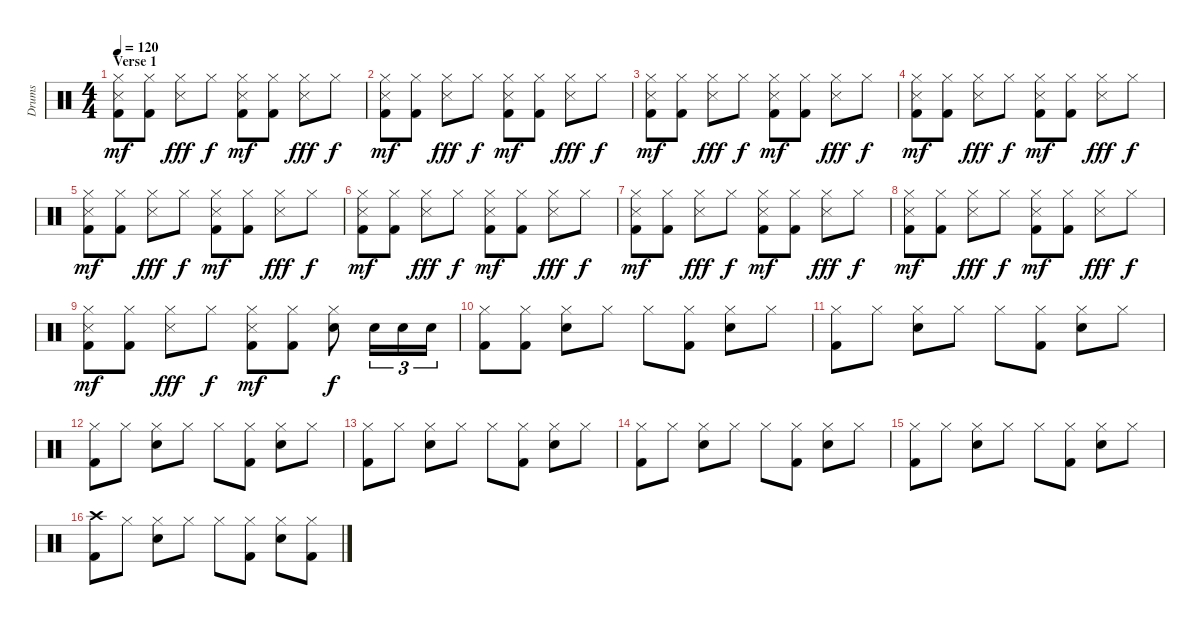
\track ("Drums" "Drums") {instrument percussion}
\staff {score}
\articulation defaults
\ts (4 4)
\section ("" "Verse 1")
\tempo 120
\clef neutral
\ks c
("Hi-Hat (closed)" "Snare (side stick) 3" "Kick (hit) 2").8{dy mf} ("Hi-Hat (closed)" "Kick (hit) 2").8 ("Hi-Hat (closed)" "Snare (side stick) 3").8{dy fff} "Hi-Hat (closed)".8{dy f} ("Hi-Hat (closed)" "Snare (side stick) 3" "Kick (hit) 2").8{dy mf} ("Hi-Hat (closed)" "Kick (hit) 2").8 ("Hi-Hat (closed)" "Snare (side stick) 3").8{dy fff} "Hi-Hat (closed)".8{dy f} |
("Hi-Hat (closed)" "Snare (side stick) 3" "Kick (hit) 2").8{dy mf} ("Hi-Hat (closed)" "Kick (hit) 2").8 ("Hi-Hat (closed)" "Snare (side stick) 3").8{dy fff} "Hi-Hat (closed)".8{dy f} ("Hi-Hat (closed)" "Snare (side stick) 3" "Kick (hit) 2").8{dy mf} ("Hi-Hat (closed)" "Kick (hit) 2").8 ("Hi-Hat (closed)" "Snare (side stick) 3").8{dy fff} "Hi-Hat (closed)".8{dy f} |
("Hi-Hat (closed)" "Snare (side stick) 3" "Kick (hit) 2").8{dy mf} ("Hi-Hat (closed)" "Kick (hit) 2").8 ("Hi-Hat (closed)" "Snare (side stick) 3").8{dy fff} "Hi-Hat (closed)".8{dy f} ("Hi-Hat (closed)" "Snare (side stick) 3" "Kick (hit) 2").8{dy mf} ("Hi-Hat (closed)" "Kick (hit) 2").8 ("Hi-Hat (closed)" "Snare (side stick) 3").8{dy fff} "Hi-Hat (closed)".8{dy f} |
("Hi-Hat (closed)" "Snare (side stick) 3" "Kick (hit) 2").8{dy mf} ("Hi-Hat (closed)" "Kick (hit) 2").8 ("Hi-Hat (closed)" "Snare (side stick) 3").8{dy fff} "Hi-Hat (closed)".8{dy f} ("Hi-Hat (closed)" "Snare (side stick) 3" "Kick (hit) 2").8{dy mf} ("Hi-Hat (closed)" "Kick (hit) 2").8 ("Hi-Hat (closed)" "Snare (side stick) 3").8{dy fff} "Hi-Hat (closed)".8{dy f} |
("Hi-Hat (closed)" "Snare (side stick) 3" "Kick (hit) 2").8{dy mf} ("Hi-Hat (closed)" "Kick (hit) 2").8 ("Hi-Hat (closed)" "Snare (side stick) 3").8{dy fff} "Hi-Hat (closed)".8{dy f} ("Hi-Hat (closed)" "Snare (side stick) 3" "Kick (hit) 2").8{dy mf} ("Hi-Hat (closed)" "Kick (hit) 2").8 ("Hi-Hat (closed)" "Snare (side stick) 3").8{dy fff} "Hi-Hat (closed)".8{dy f} |
("Hi-Hat (closed)" "Snare (side stick) 3" "Kick (hit) 2").8{dy mf} ("Hi-Hat (closed)" "Kick (hit) 2").8 ("Hi-Hat (closed)" "Snare (side stick) 3").8{dy fff} "Hi-Hat (closed)".8{dy f} ("Hi-Hat (closed)" "Snare (side stick) 3" "Kick (hit) 2").8{dy mf} ("Hi-Hat (closed)" "Kick (hit) 2").8 ("Hi-Hat (closed)" "Snare (side stick) 3").8{dy fff} "Hi-Hat (closed)".8{dy f} |
("Hi-Hat (closed)" "Snare (side stick) 3" "Kick (hit) 2").8{dy mf} ("Hi-Hat (closed)" "Kick (hit) 2").8 ("Hi-Hat (closed)" "Snare (side stick) 3").8{dy fff} "Hi-Hat (closed)".8{dy f} ("Hi-Hat (closed)" "Snare (side stick) 3" "Kick (hit) 2").8{dy mf} ("Hi-Hat (closed)" "Kick (hit) 2").8 ("Hi-Hat (closed)" "Snare (side stick) 3").8{dy fff} "Hi-Hat (closed)".8{dy f} |
("Hi-Hat (closed)" "Snare (side stick) 3" "Kick (hit) 2").8{dy mf} ("Hi-Hat (closed)" "Kick (hit) 2").8 ("Hi-Hat (closed)" "Snare (side stick) 3").8{dy fff} "Hi-Hat (closed)".8{dy f} ("Hi-Hat (closed)" "Snare (side stick) 3" "Kick (hit) 2").8{dy mf} ("Hi-Hat (closed)" "Kick (hit) 2").8 ("Hi-Hat (closed)" "Snare (side stick) 3").8{dy fff} "Hi-Hat (closed)".8{dy f} |
("Hi-Hat (closed)" "Snare (side stick) 3" "Kick (hit) 2").8{dy mf} ("Hi-Hat (closed)" "Kick (hit) 2").8 ("Hi-Hat (closed)" "Snare (side stick) 3").8{dy fff} "Hi-Hat (closed)".8{dy f} ("Hi-Hat (closed)" "Snare (side stick) 3" "Kick (hit) 2").8{dy mf} ("Hi-Hat (closed)" "Kick (hit) 2").8 ("Hi-Hat (closed)" "Electric Snare (hit)").8{dy f} "Electric Snare (hit)".16{tu (3 2)} "Electric Snare (hit)".16{tu (3 2)} "Electric Snare (hit)".16{tu (3 2)} |
("Hi-Hat (closed)" "Kick (hit) 2").8 ("Hi-Hat (closed)" "Kick (hit) 2").8 ("Hi-Hat (closed)" "Electric Snare (hit)").8 "Hi-Hat (closed)".8 "Hi-Hat (closed)".8 ("Hi-Hat (closed)" "Kick (hit) 2").8 ("Hi-Hat (closed)" "Electric Snare (hit)").8 "Hi-Hat (closed)".8 |
("Hi-Hat (closed)" "Kick (hit) 2").8 "Hi-Hat (closed)".8 ("Hi-Hat (closed)" "Electric Snare (hit)").8 "Hi-Hat (closed)".8 "Hi-Hat (closed)".8 ("Hi-Hat (closed)" "Kick (hit) 2").8 ("Hi-Hat (closed)" "Electric Snare (hit)").8 "Hi-Hat (closed)".8 |
("Hi-Hat (closed)" "Kick (hit) 2").8 "Hi-Hat (closed)".8 ("Hi-Hat (closed)" "Electric Snare (hit)").8 "Hi-Hat (closed)".8 "Hi-Hat (closed)".8 ("Hi-Hat (closed)" "Kick (hit) 2").8 ("Hi-Hat (closed)" "Electric Snare (hit)").8 "Hi-Hat (closed)".8 |
("Hi-Hat (closed)" "Kick (hit) 2").8 "Hi-Hat (closed)".8 ("Hi-Hat (closed)" "Electric Snare (hit)").8 "Hi-Hat (closed)".8 "Hi-Hat (closed)".8 ("Hi-Hat (closed)" "Kick (hit) 2").8 ("Hi-Hat (closed)" "Electric Snare (hit)").8 "Hi-Hat (closed)".8 |
("Hi-Hat (closed)" "Kick (hit) 2").8 "Hi-Hat (closed)".8 ("Hi-Hat (closed)" "Electric Snare (hit)").8 "Hi-Hat (closed)".8 "Hi-Hat (closed)".8 ("Hi-Hat (closed)" "Kick (hit) 2").8 ("Hi-Hat (closed)" "Electric Snare (hit)").8 "Hi-Hat (closed)".8 |
("Hi-Hat (closed)" "Kick (hit) 2").8 "Hi-Hat (closed)".8 ("Hi-Hat (closed)" "Electric Snare (hit)").8 "Hi-Hat (closed)".8 "Hi-Hat (closed)".8 ("Hi-Hat (closed)" "Kick (hit) 2").8 ("Hi-Hat (closed)" "Electric Snare (hit)").8 "Hi-Hat (closed)".8 |
("Crash high (hit)" "Kick (hit) 2").8 "Hi-Hat (closed)".8 ("Hi-Hat (closed)" "Electric Snare (hit)").8 "Hi-Hat (closed)".8 "Hi-Hat (closed)".8 ("Hi-Hat (closed)" "Kick (hit) 2").8 ("Hi-Hat (closed)" "Electric Snare (hit)").8 ("Hi-Hat (closed)" "Kick (hit) 2").8
